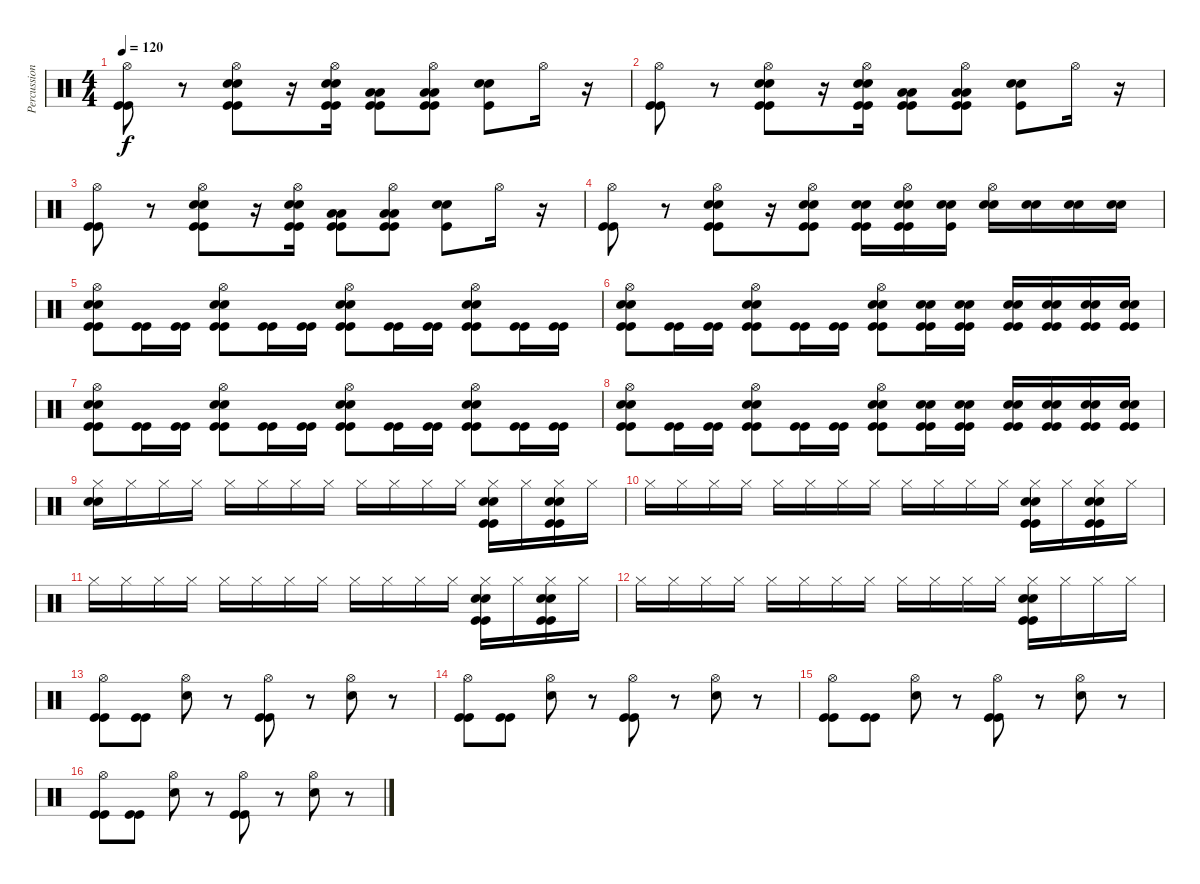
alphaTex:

\track ("Percussion" "Percussion") {instrument percussion}
\staff {score}
\articulation defaults
\ts (4 4)
\tempo 120
\clef neutral
\ks c
("Hi-Hat (open)" "Kick (hit)" "Kick (hit)").8{dy f} r.8 ("Hi-Hat (open)" "Kick (hit)" "Kick (hit)" "Electric Snare (hit)" "Electric Snare (hit)").8 r.16 ("Hi-Hat (open)" "Kick (hit)" "Kick (hit)" "Electric Snare (hit)" "Electric Snare (hit)").16 ("Kick (hit)" "Kick (hit)" "Low Tom (hit)" "Low Tom (hit)").8 ("Hi-Hat (open)" "Kick (hit)" "Kick (hit)" "Low Tom (hit)" "Low Tom (hit)").8 ("Kick (hit)" "Electric Snare (hit)" "Electric Snare (hit)").8 "Hi-Hat (open)".16 r.16 |
("Hi-Hat (open)" "Kick (hit)" "Kick (hit)").8 r.8 ("Hi-Hat (open)" "Kick (hit)" "Kick (hit)" "Electric Snare (hit)" "Electric Snare (hit)").8 r.16 ("Hi-Hat (open)" "Kick (hit)" "Kick (hit)" "Electric Snare (hit)" "Electric Snare (hit)").16 ("Kick (hit)" "Kick (hit)" "Low Tom (hit)" "Low Tom (hit)").8 ("Hi-Hat (open)" "Kick (hit)" "Kick (hit)" "Low Tom (hit)" "Low Tom (hit)").8 ("Kick (hit)" "Electric Snare (hit)" "Electric Snare (hit)").8 "Hi-Hat (open)".16 r.16 |
("Hi-Hat (open)" "Kick (hit)" "Kick (hit)").8 r.8 ("Hi-Hat (open)" "Kick (hit)" "Kick (hit)" "Electric Snare (hit)" "Electric Snare (hit)").8 r.16 ("Hi-Hat (open)" "Kick (hit)" "Kick (hit)" "Electric Snare (hit)" "Electric Snare (hit)").16 ("Kick (hit)" "Kick (hit)" "Low Tom (hit)" "Low Tom (hit)").8 ("Hi-Hat (open)" "Kick (hit)" "Kick (hit)" "Low Tom (hit)" "Low Tom (hit)").8 ("Kick (hit)" "Electric Snare (hit)" "Electric Snare (hit)").8 "Hi-Hat (open)".16 r.16 |
("Hi-Hat (open)" "Kick (hit)" "Kick (hit)").8 r.8 ("Hi-Hat (open)" "Kick (hit)" "Kick (hit)" "Electric Snare (hit)" "Electric Snare (hit)").8 r.16 ("Hi-Hat (open)" "Kick (hit)" "Kick (hit)" "Electric Snare (hit)" "Electric Snare (hit)").8 ("Kick (hit)" "Kick (hit)" "Electric Snare (hit)" "Electric Snare (hit)").16 ("Hi-Hat (open)" "Kick (hit)" "Kick (hit)" "Electric Snare (hit)" "Electric Snare (hit)").16 ("Kick (hit)" "Electric Snare (hit)" "Electric Snare (hit)").16 ("Hi-Hat (open)" "Electric Snare (hit)" "Electric Snare (hit)").16 ("Electric Snare (hit)" "Electric Snare (hit)").16 ("Electric Snare (hit)" "Electric Snare (hit)").16 ("Electric Snare (hit)" "Electric Snare (hit)").16 |
("Hi-Hat (open)" "Kick (hit)" "Kick (hit)" "Electric Snare (hit)" "Electric Snare (hit)").8 ("Kick (hit)" "Kick (hit)").16 ("Kick (hit)" "Kick (hit)").16 ("Hi-Hat (open)" "Kick (hit)" "Kick (hit)" "Electric Snare (hit)" "Electric Snare (hit)").8 ("Kick (hit)" "Kick (hit)").16 ("Kick (hit)" "Kick (hit)").16 ("Hi-Hat (open)" "Kick (hit)" "Kick (hit)" "Electric Snare (hit)" "Electric Snare (hit)").8 ("Kick (hit)" "Kick (hit)").16 ("Kick (hit)" "Kick (hit)").16 ("Hi-Hat (open)" "Kick (hit)" "Kick (hit)" "Electric Snare (hit)" "Electric Snare (hit)").8 ("Kick (hit)" "Kick (hit)").16 ("Kick (hit)" "Kick (hit)").16 |
("Hi-Hat (open)" "Kick (hit)" "Kick (hit)" "Electric Snare (hit)" "Electric Snare (hit)").8 ("Kick (hit)" "Kick (hit)").16 ("Kick (hit)" "Kick (hit)").16 ("Hi-Hat (open)" "Kick (hit)" "Kick (hit)" "Electric Snare (hit)" "Electric Snare (hit)").8 ("Kick (hit)" "Kick (hit)").16 ("Kick (hit)" "Kick (hit)").16 ("Hi-Hat (open)" "Kick (hit)" "Kick (hit)" "Electric Snare (hit)" "Electric Snare (hit)").8 ("Kick (hit)" "Kick (hit)" "Electric Snare (hit)" "Electric Snare (hit)").16 ("Kick (hit)" "Kick (hit)" "Electric Snare (hit)" "Electric Snare (hit)").16 ("Kick (hit)" "Kick (hit)" "Electric Snare (hit)" "Electric Snare (hit)").16 ("Kick (hit)" "Kick (hit)" "Electric Snare (hit)" "Electric Snare (hit)").16 ("Kick (hit)" "Kick (hit)" "Electric Snare (hit)" "Electric Snare (hit)").16 ("Kick (hit)" "Kick (hit)" "Electric Snare (hit)" "Electric Snare (hit)").16 |
("Hi-Hat (open)" "Kick (hit)" "Kick (hit)" "Electric Snare (hit)" "Electric Snare (hit)").8 ("Kick (hit)" "Kick (hit)").16 ("Kick (hit)" "Kick (hit)").16 ("Hi-Hat (open)" "Kick (hit)" "Kick (hit)" "Electric Snare (hit)" "Electric Snare (hit)").8 ("Kick (hit)" "Kick (hit)").16 ("Kick (hit)" "Kick (hit)").16 ("Hi-Hat (open)" "Kick (hit)" "Kick (hit)" "Electric Snare (hit)" "Electric Snare (hit)").8 ("Kick (hit)" "Kick (hit)").16 ("Kick (hit)" "Kick (hit)").16 ("Hi-Hat (open)" "Kick (hit)" "Kick (hit)" "Electric Snare (hit)" "Electric Snare (hit)").8 ("Kick (hit)" "Kick (hit)").16 ("Kick (hit)" "Kick (hit)").16 |
("Hi-Hat (open)" "Kick (hit)" "Kick (hit)" "Electric Snare (hit)" "Electric Snare (hit)").8 ("Kick (hit)" "Kick (hit)").16 ("Kick (hit)" "Kick (hit)").16 ("Hi-Hat (open)" "Kick (hit)" "Kick (hit)" "Electric Snare (hit)" "Electric Snare (hit)").8 ("Kick (hit)" "Kick (hit)").16 ("Kick (hit)" "Kick (hit)").16 ("Hi-Hat (open)" "Kick (hit)" "Kick (hit)" "Electric Snare (hit)" "Electric Snare (hit)").8 ("Kick (hit)" "Kick (hit)" "Electric Snare (hit)" "Electric Snare (hit)").16 ("Kick (hit)" "Kick (hit)" "Electric Snare (hit)" "Electric Snare (hit)").16 ("Kick (hit)" "Kick (hit)" "Electric Snare (hit)" "Electric Snare (hit)").16 ("Kick (hit)" "Kick (hit)" "Electric Snare (hit)" "Electric Snare (hit)").16 ("Kick (hit)" "Kick (hit)" "Electric Snare (hit)" "Electric Snare (hit)").16 ("Kick (hit)" "Kick (hit)" "Electric Snare (hit)" "Electric Snare (hit)").16 |
("Hi-Hat (closed)" "Electric Snare (hit)" "Electric Snare (hit)").16 "Hi-Hat (closed)".16 "Hi-Hat (closed)".16 "Hi-Hat (closed)".16 "Hi-Hat (closed)".16 "Hi-Hat (closed)".16 "Hi-Hat (closed)".16 "Hi-Hat (closed)".16 "Hi-Hat (closed)".16 "Hi-Hat (closed)".16 "Hi-Hat (closed)".16 "Hi-Hat (closed)".16 ("Hi-Hat (closed)" "Kick (hit)" "Kick (hit)" "Electric Snare (hit)" "Electric Snare (hit)").16 "Hi-Hat (closed)".16 ("Hi-Hat (closed)" "Kick (hit)" "Kick (hit)" "Electric Snare (hit)" "Electric Snare (hit)").16 "Hi-Hat (closed)".16 |
"Hi-Hat (closed)".16 "Hi-Hat (closed)".16 "Hi-Hat (closed)".16 "Hi-Hat (closed)".16 "Hi-Hat (closed)".16 "Hi-Hat (closed)".16 "Hi-Hat (closed)".16 "Hi-Hat (closed)".16 "Hi-Hat (closed)".16 "Hi-Hat (closed)".16 "Hi-Hat (closed)".16 "Hi-Hat (closed)".16 ("Hi-Hat (closed)" "Kick (hit)" "Kick (hit)" "Electric Snare (hit)" "Electric Snare (hit)").16 "Hi-Hat (closed)".16 ("Hi-Hat (closed)" "Kick (hit)" "Kick (hit)" "Electric Snare (hit)" "Electric Snare (hit)").16 "Hi-Hat (closed)".16 |
"Hi-Hat (closed)".16 "Hi-Hat (closed)".16 "Hi-Hat (closed)".16 "Hi-Hat (closed)".16 "Hi-Hat (closed)".16 "Hi-Hat (closed)".16 "Hi-Hat (closed)".16 "Hi-Hat (closed)".16 "Hi-Hat (closed)".16 "Hi-Hat (closed)".16 "Hi-Hat (closed)".16 "Hi-Hat (closed)".16 ("Hi-Hat (closed)" "Kick (hit)" "Kick (hit)" "Electric Snare (hit)" "Electric Snare (hit)").16 "Hi-Hat (closed)".16 ("Hi-Hat (closed)" "Kick (hit)" "Kick (hit)" "Electric Snare (hit)" "Electric Snare (hit)").16 "Hi-Hat (closed)".16 |
"Hi-Hat (closed)".16 "Hi-Hat (closed)".16 "Hi-Hat (closed)".16 "Hi-Hat (closed)".16 "Hi-Hat (closed)".16 "Hi-Hat (closed)".16 "Hi-Hat (closed)".16 "Hi-Hat (closed)".16 "Hi-Hat (closed)".16 "Hi-Hat (closed)".16 "Hi-Hat (closed)".16 "Hi-Hat (closed)".16 ("Hi-Hat (closed)" "Kick (hit)" "Kick (hit)" "Electric Snare (hit)" "Electric Snare (hit)").16 "Hi-Hat (closed)".16 "Hi-Hat (closed)".16 "Hi-Hat (closed)".16 |
("Hi-Hat (open)" "Kick (hit)" "Kick (hit)").8 ("Kick (hit)" "Kick (hit)").8 ("Hi-Hat (open)" "Electric Snare (hit)").8 r.8 ("Hi-Hat (open)" "Kick (hit)" "Kick (hit)").8 r.8 ("Hi-Hat (open)" "Electric Snare (hit)").8 r.8 |
("Hi-Hat (open)" "Kick (hit)" "Kick (hit)").8 ("Kick (hit)" "Kick (hit)").8 ("Hi-Hat (open)" "Electric Snare (hit)").8 r.8 ("Hi-Hat (open)" "Kick (hit)" "Kick (hit)").8 r.8 ("Hi-Hat (open)" "Electric Snare (hit)").8 r.8 |
("Hi-Hat (open)" "Kick (hit)" "Kick (hit)").8 ("Kick (hit)" "Kick (hit)").8 ("Hi-Hat (open)" "Electric Snare (hit)").8 r.8 ("Hi-Hat (open)" "Kick (hit)" "Kick (hit)").8 r.8 ("Hi-Hat (open)" "Electric Snare (hit)").8 r.8 |
("Hi-Hat (open)" "Kick (hit)" "Kick (hit)").8 ("Kick (hit)" "Kick (hit)").8 ("Hi-Hat (open)" "Electric Snare (hit)").8 r.8 ("Hi-Hat (open)" "Kick (hit)" "Kick (hit)").8 r.8 ("Hi-Hat (open)" "Electric Snare (hit)").8 r.8
